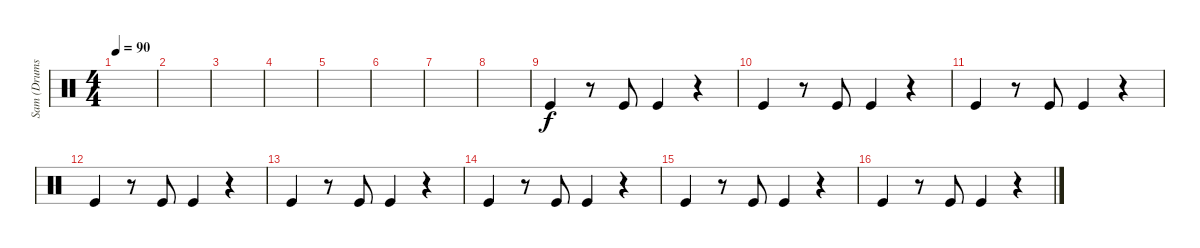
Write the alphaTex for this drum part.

\track ("Sam (Drums)" "Sam (Drums") {instrument percussion}
\staff {score}
\articulation defaults
\ts (4 4)
\tempo 90
\clef neutral
\ks c
|
|
|
|
|
|
|
|
"Kick (hit)".4 r.8 "Kick (hit)".8 "Kick (hit)".4 r.4 |
"Kick (hit)".4 r.8 "Kick (hit)".8 "Kick (hit)".4 r.4 |
"Kick (hit)".4 r.8 "Kick (hit)".8 "Kick (hit)".4 r.4 |
"Kick (hit)".4 r.8 "Kick (hit)".8 "Kick (hit)".4 r.4 |
"Kick (hit)".4 r.8 "Kick (hit)".8 "Kick (hit)".4 r.4 |
"Kick (hit)".4 r.8 "Kick (hit)".8 "Kick (hit)".4 r.4 |
"Kick (hit)".4 r.8 "Kick (hit)".8 "Kick (hit)".4 r.4 |
"Kick (hit)".4 r.8 "Kick (hit)".8 "Kick (hit)".4 r.4
